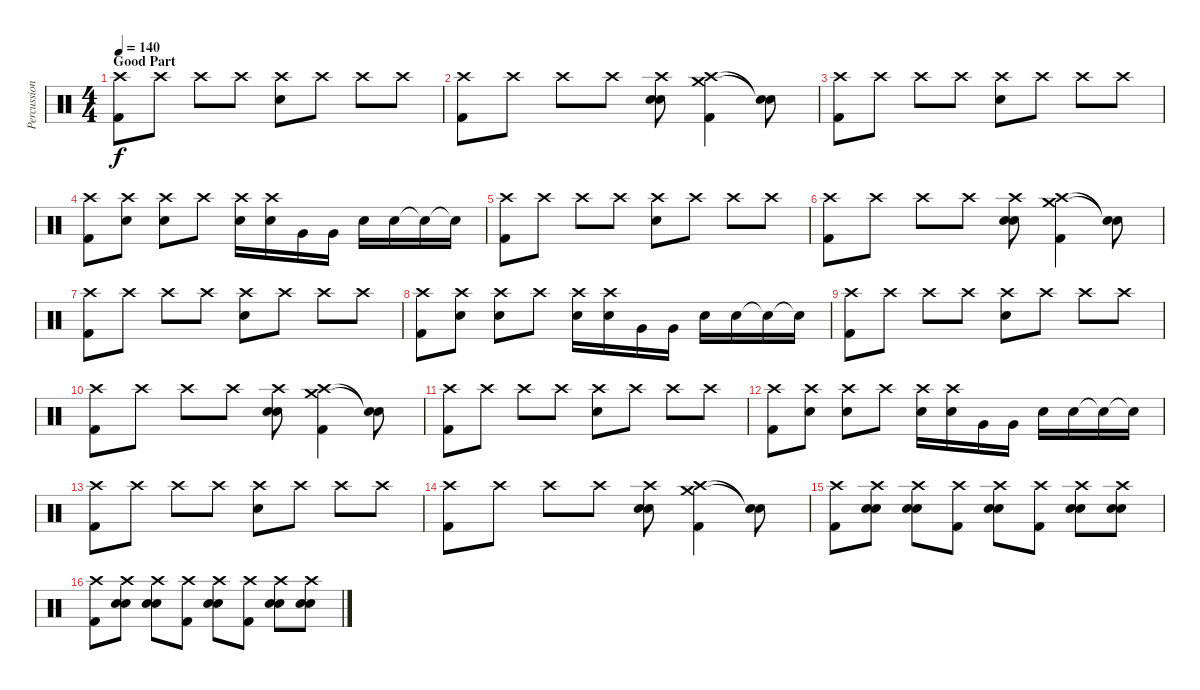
\track ("Percussion" "Percussion") {instrument percussion}
\staff {score}
\articulation defaults
\ts (4 4)
\section ("" "Good Part")
\tempo 140
\clef neutral
\ks c
("Crash high (hit)" "Kick (hit) 2").8{dy f} "Crash high (hit)"{x}.8 "Crash high (hit)".8 "Crash high (hit)"{x}.8 ("Crash high (hit)" "Electric Snare (hit)").8 "Crash high (hit)"{x}.8 "Crash high (hit)".8 "Crash high (hit)"{x}.8 |
("Crash high (hit)" "Kick (hit) 2").8 "Crash high (hit)"{x}.8 "Crash high (hit)".8 "Crash high (hit)"{x}.8 ("Crash high (hit)" "Electric Snare (hit)" "Snare (hit) 2").8 ("Crash high (hit)"{x} "Crash medium (hit)" "Kick (hit) 2").4 ("Snare (hit)"{t} "Snare (hit)"{t}).8 |
("Crash high (hit)" "Kick (hit) 2").8 "Crash high (hit)"{x}.8 "Crash high (hit)".8 "Crash high (hit)"{x}.8 ("Crash high (hit)" "Electric Snare (hit)").8 "Crash high (hit)"{x}.8 "Crash high (hit)".8 "Crash high (hit)"{x}.8 |
("Crash high (hit)" "Kick (hit) 2").8 ("Crash high (hit)"{x} "Electric Snare (hit)").8 ("Crash high (hit)" "Electric Snare (hit)").8 "Crash high (hit)"{x}.8 ("Crash high (hit)" "Electric Snare (hit)").16 ("Crash high (hit)"{x} "Electric Snare (hit)").16 "Very Low Tom (hit)".16 "Very Low Tom (hit)".16 "Electric Snare (hit)".16 "Electric Snare (hit)".16 "Snare (hit)"{t}.16 "Snare (hit)"{t}.16 |
("Crash high (hit)" "Kick (hit) 2").8 "Crash high (hit)"{x}.8 "Crash high (hit)".8 "Crash high (hit)"{x}.8 ("Crash high (hit)" "Electric Snare (hit)").8 "Crash high (hit)"{x}.8 "Crash high (hit)".8 "Crash high (hit)"{x}.8 |
("Crash high (hit)" "Kick (hit) 2").8 "Crash high (hit)"{x}.8 "Crash high (hit)".8 "Crash high (hit)"{x}.8 ("Crash high (hit)" "Electric Snare (hit)" "Snare (hit) 2").8 ("Crash high (hit)"{x} "Crash medium (hit)" "Kick (hit) 2").4 ("Snare (hit)"{t} "Snare (hit)"{t}).8 |
("Crash high (hit)" "Kick (hit) 2").8 "Crash high (hit)"{x}.8 "Crash high (hit)".8 "Crash high (hit)"{x}.8 ("Crash high (hit)" "Electric Snare (hit)").8 "Crash high (hit)"{x}.8 "Crash high (hit)".8 "Crash high (hit)"{x}.8 |
("Crash high (hit)" "Kick (hit) 2").8 ("Crash high (hit)"{x} "Electric Snare (hit)").8 ("Crash high (hit)" "Electric Snare (hit)").8 "Crash high (hit)"{x}.8 ("Crash high (hit)" "Electric Snare (hit)").16 ("Crash high (hit)"{x} "Electric Snare (hit)").16 "Very Low Tom (hit)".16 "Very Low Tom (hit)".16 "Electric Snare (hit)".16 "Electric Snare (hit)".16 "Snare (hit)"{t}.16 "Snare (hit)"{t}.16 |
("Crash high (hit)" "Kick (hit) 2").8 "Crash high (hit)"{x}.8 "Crash high (hit)".8 "Crash high (hit)"{x}.8 ("Crash high (hit)" "Electric Snare (hit)").8 "Crash high (hit)"{x}.8 "Crash high (hit)".8 "Crash high (hit)"{x}.8 |
("Crash high (hit)" "Kick (hit) 2").8 "Crash high (hit)"{x}.8 "Crash high (hit)".8 "Crash high (hit)"{x}.8 ("Crash high (hit)" "Electric Snare (hit)" "Snare (hit) 2").8 ("Crash high (hit)"{x} "Crash medium (hit)" "Kick (hit) 2").4 ("Snare (hit)"{t} "Snare (hit)"{t}).8 |
("Crash high (hit)" "Kick (hit) 2").8 "Crash high (hit)"{x}.8 "Crash high (hit)".8 "Crash high (hit)"{x}.8 ("Crash high (hit)" "Electric Snare (hit)").8 "Crash high (hit)"{x}.8 "Crash high (hit)".8 "Crash high (hit)"{x}.8 |
("Crash high (hit)" "Kick (hit) 2").8 ("Crash high (hit)"{x} "Electric Snare (hit)").8 ("Crash high (hit)" "Electric Snare (hit)").8 "Crash high (hit)"{x}.8 ("Crash high (hit)" "Electric Snare (hit)").16 ("Crash high (hit)"{x} "Electric Snare (hit)").16 "Very Low Tom (hit)".16 "Very Low Tom (hit)".16 "Electric Snare (hit)".16 "Electric Snare (hit)".16 "Snare (hit)"{t}.16 "Snare (hit)"{t}.16 |
("Crash high (hit)" "Kick (hit) 2").8 "Crash high (hit)"{x}.8 "Crash high (hit)".8 "Crash high (hit)"{x}.8 ("Crash high (hit)" "Electric Snare (hit)").8 "Crash high (hit)"{x}.8 "Crash high (hit)".8 "Crash high (hit)"{x}.8 |
("Crash high (hit)" "Kick (hit) 2").8 "Crash high (hit)"{x}.8 "Crash high (hit)".8 "Crash high (hit)"{x}.8 ("Crash high (hit)" "Electric Snare (hit)" "Snare (hit) 2").8 ("Crash high (hit)"{x} "Crash medium (hit)" "Kick (hit) 2").4 ("Snare (hit)"{t} "Snare (hit)"{t}).8 |
("Crash high (hit)" "Kick (hit) 2").8 ("Crash high (hit)"{x} "Electric Snare (hit)" "Snare (hit) 2").8 ("Crash high (hit)" "Electric Snare (hit)" "Snare (hit) 2").8 ("Crash high (hit)"{x} "Kick (hit) 2").8 ("Crash high (hit)" "Electric Snare (hit)" "Snare (hit) 2").8 ("Crash high (hit)"{x} "Kick (hit) 2").8 ("Crash high (hit)" "Electric Snare (hit)" "Snare (hit) 2").8 ("Crash high (hit)"{x} "Electric Snare (hit)" "Snare (hit) 2").8 |
("Crash high (hit)" "Kick (hit) 2").8 ("Crash high (hit)"{x} "Electric Snare (hit)" "Snare (hit) 2").8 ("Crash high (hit)" "Electric Snare (hit)" "Snare (hit) 2").8 ("Crash high (hit)"{x} "Kick (hit) 2").8 ("Crash high (hit)" "Electric Snare (hit)" "Snare (hit) 2").8 ("Crash high (hit)"{x} "Kick (hit) 2").8 ("Crash high (hit)" "Electric Snare (hit)" "Snare (hit) 2").8 ("Crash high (hit)"{x} "Electric Snare (hit)" "Snare (hit) 2").8
